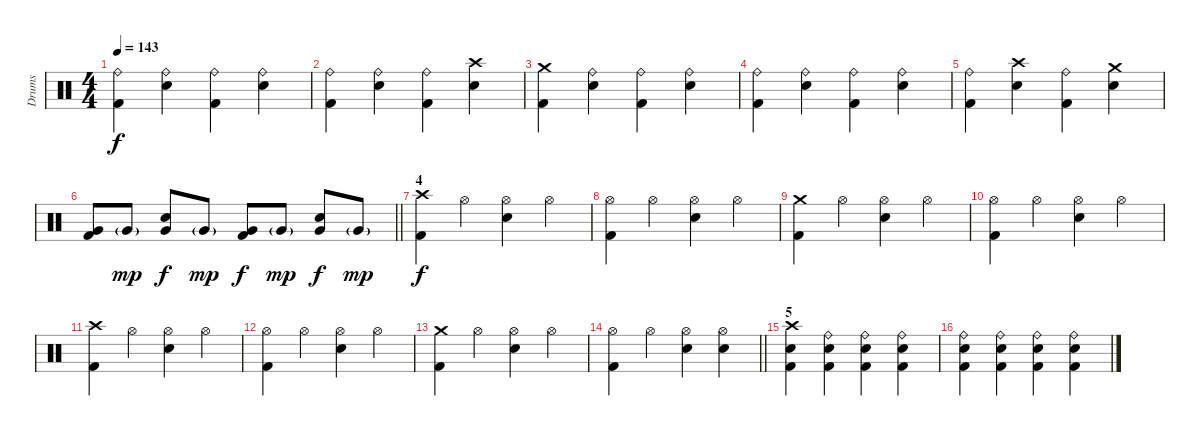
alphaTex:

\track ("Drums" "Drums") {instrument percussion}
\staff {score}
\articulation defaults
\ts (4 4)
\tempo 143
\clef neutral
\ks c
("Ride (bell)" "Kick (hit) 2").4{dy f} ("Ride (bell)" "Electric Snare (hit)").4 ("Ride (bell)" "Kick (hit) 2").4 ("Ride (bell)" "Electric Snare (hit)").4 |
("Ride (bell)" "Kick (hit) 2").4 ("Ride (bell)" "Electric Snare (hit)").4 ("Ride (bell)" "Kick (hit) 2").4 ("Crash high (hit)" "Electric Snare (hit)").4 |
("Crash medium (hit)" "Kick (hit) 2").4 ("Ride (bell)" "Electric Snare (hit)").4 ("Ride (bell)" "Kick (hit) 2").4 ("Ride (bell)" "Electric Snare (hit)").4 |
("Ride (bell)" "Kick (hit) 2").4 ("Ride (bell)" "Electric Snare (hit)").4 ("Ride (bell)" "Kick (hit) 2").4 ("Ride (bell)" "Electric Snare (hit)").4 |
("Ride (bell)" "Kick (hit) 2").4 ("Crash high (hit)" "Electric Snare (hit)").4 ("Ride (bell)" "Kick (hit) 2").4 ("Crash medium (hit)" "Electric Snare (hit)").4 |
\barLineRight lightlight
("Kick (hit) 2" "Very Low Tom (hit)").8 "Very Low Tom (hit)"{g}.8{dy mp} ("Electric Snare (hit)" "Very Low Tom (hit)").8{dy f} "Very Low Tom (hit)"{g}.8{dy mp} ("Kick (hit) 2" "Very Low Tom (hit)").8{dy f} "Very Low Tom (hit)"{g}.8{dy mp} ("Electric Snare (hit)" "Very Low Tom (hit)").8{dy f} "Very Low Tom (hit)"{g}.8{dy mp} |
\section ("" "4")
("Crash high (hit)" "Kick (hit) 2").4{dy f} "Hi-Hat (open)".4 ("Hi-Hat (open)" "Electric Snare (hit)").4 "Hi-Hat (open)".4 |
("Hi-Hat (open)" "Kick (hit) 2").4 "Hi-Hat (open)".4 ("Hi-Hat (open)" "Electric Snare (hit)").4 "Hi-Hat (open)".4 |
("Crash medium (hit)" "Kick (hit) 2").4 "Hi-Hat (open)".4 ("Hi-Hat (open)" "Electric Snare (hit)").4 "Hi-Hat (open)".4 |
("Hi-Hat (open)" "Kick (hit) 2").4 "Hi-Hat (open)".4 ("Hi-Hat (open)" "Electric Snare (hit)").4 "Hi-Hat (open)".4 |
("Crash high (hit)" "Kick (hit) 2").4 "Hi-Hat (open)".4 ("Hi-Hat (open)" "Electric Snare (hit)").4 "Hi-Hat (open)".4 |
("Hi-Hat (open)" "Kick (hit) 2").4 "Hi-Hat (open)".4 ("Hi-Hat (open)" "Electric Snare (hit)").4 "Hi-Hat (open)".4 |
("Crash medium (hit)" "Kick (hit) 2").4 "Hi-Hat (open)".4 ("Hi-Hat (open)" "Electric Snare (hit)").4 "Hi-Hat (open)".4 |
\barLineRight lightlight
("Hi-Hat (open)" "Kick (hit) 2").4 "Hi-Hat (open)".4 ("Hi-Hat (open)" "Electric Snare (hit)").4 ("Hi-Hat (open)" "Electric Snare (hit)").4 |
\section ("" "5")
("Crash high (hit)" "Kick (hit) 2" "Electric Snare (hit)").4 ("Ride (bell)" "Kick (hit) 2" "Electric Snare (hit)").4 ("Ride (bell)" "Kick (hit) 2" "Electric Snare (hit)").4 ("Ride (bell)" "Kick (hit) 2" "Electric Snare (hit)").4 |
("Ride (bell)" "Kick (hit) 2" "Electric Snare (hit)").4 ("Ride (bell)" "Kick (hit) 2" "Electric Snare (hit)").4 ("Ride (bell)" "Kick (hit) 2" "Electric Snare (hit)").4 ("Ride (bell)" "Kick (hit) 2" "Electric Snare (hit)").4
